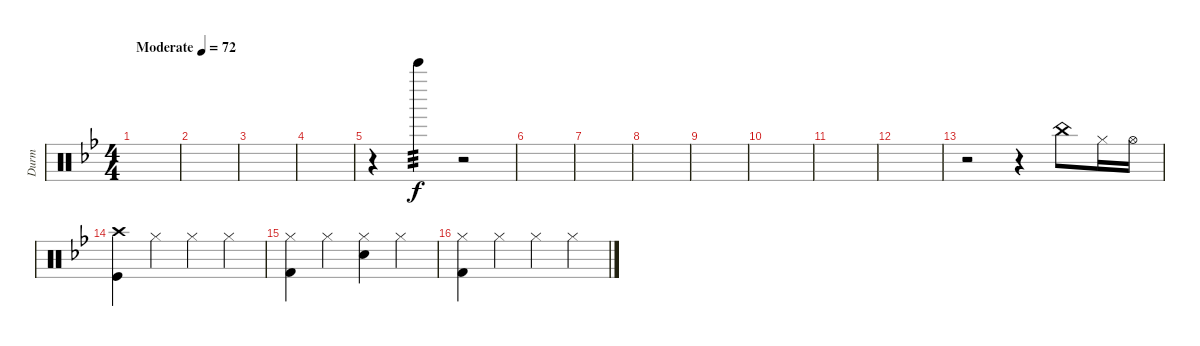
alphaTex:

\track ("Durm" "Durm") {instrument percussion}
\staff {score}
\articulation defaults
\ts (4 4)
\tempo (72 "Moderate")
\clef neutral
\ks gminor
|
|
|
|
r.4 "Bell Tree (hit)".4{tp 3} r.2 |
|
|
|
|
|
|
|
\ks bb
r.2 r.4 "China (hit)".8 "Hi-Hat (closed)".16 "Hi-Hat (open)".16 |
("Crash high (hit)" "Kick (hit)").4 "Hi-Hat (closed)".4 "Hi-Hat (closed)".4 "Hi-Hat (closed)".4 |
("Hi-Hat (closed)" "Kick (hit) 2").4 "Hi-Hat (closed)".4 ("Hi-Hat (closed)" "Electric Snare (hit)").4 "Hi-Hat (closed)".4 |
("Hi-Hat (closed)" "Kick (hit) 2").4 "Hi-Hat (closed)".4 "Hi-Hat (closed)".4 "Hi-Hat (closed)".4
